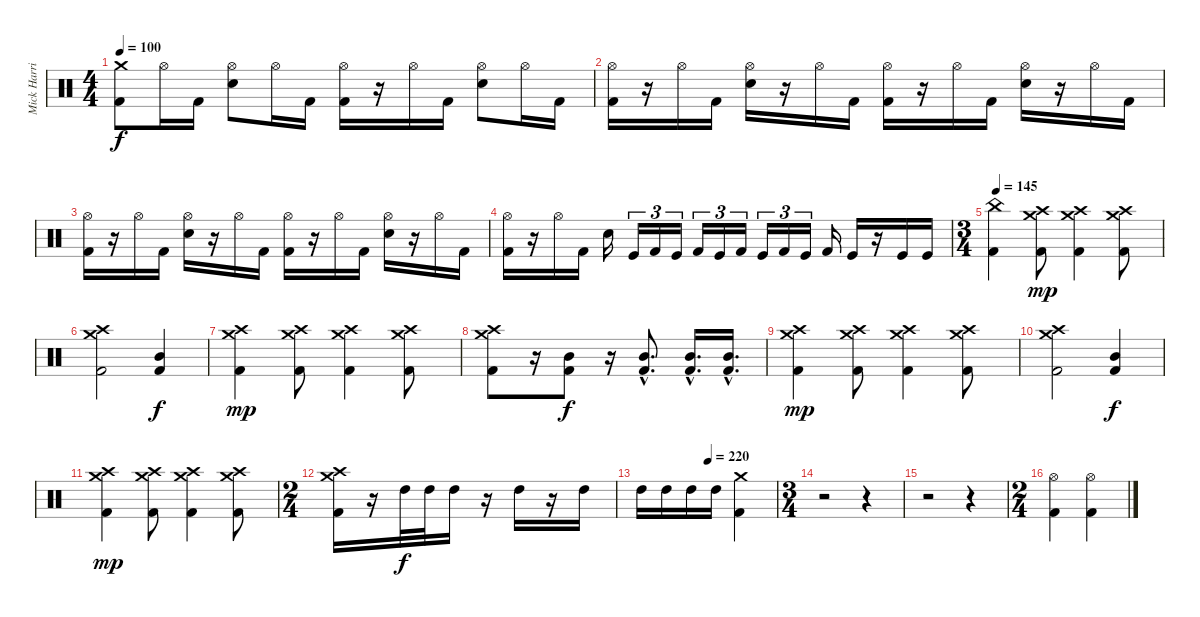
\track ("Mick Harris (Drums)" "Mick Harri") {instrument percussion}
\staff {score}
\articulation defaults
\ts (4 4)
\tempo 100
\clef neutral
\ks c
("Kick (hit) 2" "Crash medium (hit)").8{dy f} "Hi-Hat (open)".16 "Kick (hit) 2".16 ("Electric Snare (hit)" "Hi-Hat (open)").8 "Hi-Hat (open)".16 "Kick (hit) 2".16 ("Kick (hit) 2" "Hi-Hat (open)").16 r.16 "Hi-Hat (open)".16 "Kick (hit) 2".16 ("Electric Snare (hit)" "Hi-Hat (open)").8 "Hi-Hat (open)".16 "Kick (hit) 2".16 |
("Kick (hit) 2" "Hi-Hat (open)").16 r.16 "Hi-Hat (open)".16 "Kick (hit) 2".16 ("Electric Snare (hit)" "Hi-Hat (open)").16 r.16 "Hi-Hat (open)".16 "Kick (hit) 2".16 ("Kick (hit) 2" "Hi-Hat (open)").16 r.16 "Hi-Hat (open)".16 "Kick (hit) 2".16 ("Electric Snare (hit)" "Hi-Hat (open)").16 r.16 "Hi-Hat (open)".16 "Kick (hit) 2".16 |
("Kick (hit) 2" "Hi-Hat (open)").16 r.16 "Hi-Hat (open)".16 "Kick (hit) 2".16 ("Electric Snare (hit)" "Hi-Hat (open)").16 r.16 "Hi-Hat (open)".16 "Kick (hit) 2".16 ("Kick (hit) 2" "Hi-Hat (open)").16 r.16 "Hi-Hat (open)".16 "Kick (hit) 2".16 ("Electric Snare (hit)" "Hi-Hat (open)").16 r.16 "Hi-Hat (open)".16 "Kick (hit) 2".16 |
("Kick (hit) 2" "Hi-Hat (open)").16 r.16 "Hi-Hat (open)".16 "Kick (hit) 2".16 "Electric Snare (hit)".16 "Kick (hit)".16{tu (3 2)} "Kick (hit) 2".16{tu (3 2)} "Kick (hit)".16{tu (3 2)} "Kick (hit) 2".16{tu (3 2)} "Kick (hit)".16{tu (3 2)} "Kick (hit) 2".16{tu (3 2)} "Kick (hit)".16{tu (3 2)} "Kick (hit) 2".16{tu (3 2)} "Kick (hit)".16{tu (3 2)} "Kick (hit) 2".16 "Kick (hit)".16 r.16 "Kick (hit)".16 "Kick (hit)".16 |
\ts (3 4)
\tempo 145
("Kick (hit) 2" "China (hit)").4 ("Kick (hit) 2" "Crash high (hit)" "Crash medium (hit)").8{dy mp} ("Kick (hit) 2" "Crash medium (hit)" "Crash high (hit)").4 ("Kick (hit) 2" "Crash high (hit)" "Crash medium (hit)").8 |
("Kick (hit) 2" "Crash high (hit)" "Crash medium (hit)").2 ("Kick (hit) 2" "Mid Tom (hit)").4{dy f} |
("Kick (hit) 2" "Crash medium (hit)" "Crash high (hit)").4{dy mp} ("Kick (hit) 2" "Crash high (hit)" "Crash medium (hit)").8 ("Kick (hit) 2" "Crash medium (hit)" "Crash high (hit)").4 ("Kick (hit) 2" "Crash high (hit)" "Crash medium (hit)").8 |
("Kick (hit) 2" "Crash high (hit)" "Crash medium (hit)").8 r.16 ("Kick (hit) 2" "Mid Tom (hit)").8{dy f} r.16 ("Kick (hit) 2"{hac} "Mid Tom (hit)"{hac}).8{d} ("Kick (hit) 2"{hac} "Mid Tom (hit)"{hac}).16{d} ("Kick (hit) 2"{hac} "Mid Tom (hit)"{hac}).16{d} |
("Kick (hit) 2" "Crash high (hit)" "Crash medium (hit)").4{dy mp} ("Kick (hit) 2" "Crash high (hit)" "Crash medium (hit)").8 ("Kick (hit) 2" "Crash medium (hit)" "Crash high (hit)").4 ("Kick (hit) 2" "Crash high (hit)" "Crash medium (hit)").8 |
("Kick (hit) 2" "Crash high (hit)" "Crash medium (hit)").2 ("Kick (hit) 2" "Mid Tom (hit)").4{dy f} |
("Kick (hit) 2" "Crash medium (hit)" "Crash high (hit)").4{dy mp} ("Kick (hit) 2" "Crash high (hit)" "Crash medium (hit)").8 ("Kick (hit) 2" "Crash medium (hit)" "Crash high (hit)").4 ("Kick (hit) 2" "Crash high (hit)" "Crash medium (hit)").8 |
\ts (2 4)
("Kick (hit) 2" "Crash high (hit)" "Crash medium (hit)").16 r.16 "High Tom (hit)".32{dy f} "High Tom (hit)".32 "High Tom (hit)".16 r.16 "High Tom (hit)".16 r.16 "High Tom (hit)".16 |
\tempo (220 0.5)
"High Tom (hit)".16 "High Tom (hit)".16 "High Tom (hit)".16 "High Tom (hit)".16 ("Kick (hit) 2" "Crash medium (hit)").4 |
\ts (3 4)
r.2 r.4 |
r.2 r.4 |
\ts (2 4)
("Kick (hit) 2" "Hi-Hat (open)").4 ("Kick (hit) 2" "Hi-Hat (open)").4
